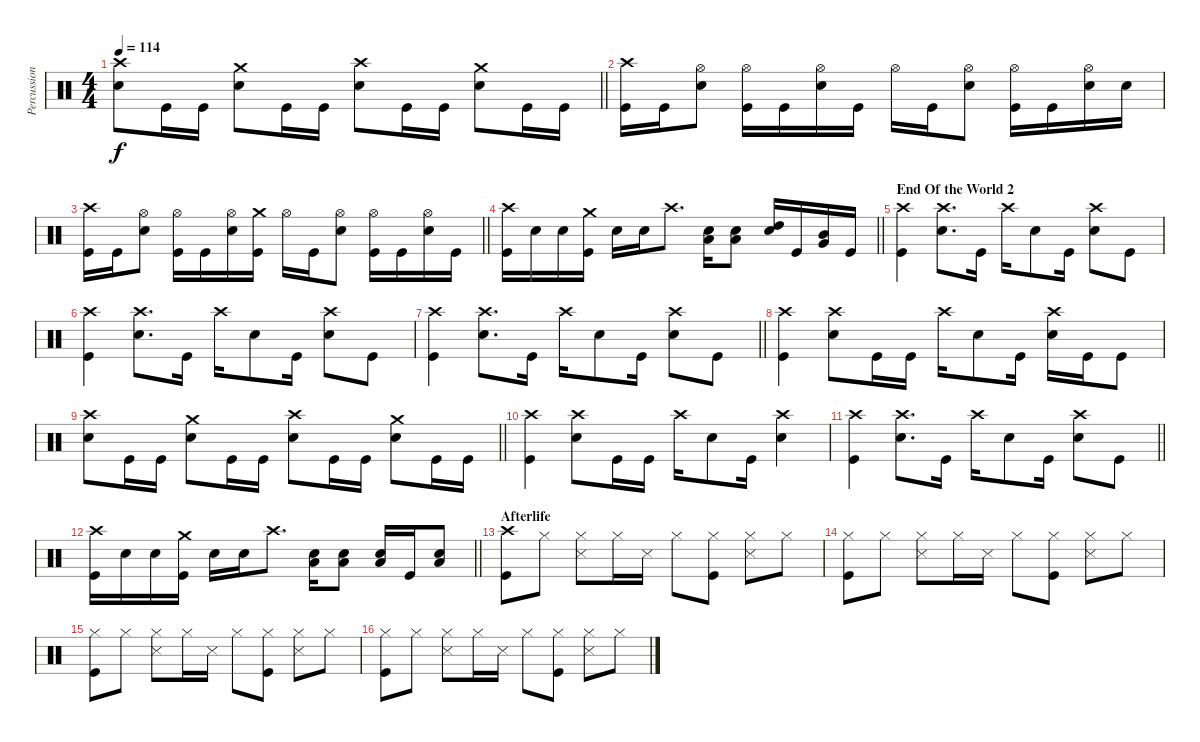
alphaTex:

\track ("Percussion" "Percussion") {instrument percussion}
\staff {score}
\articulation defaults
\ts (4 4)
\tempo 114
\clef neutral
\barLineRight lightlight
\ks c
("Crash high (hit)" "Electric Snare (hit)").8{dy f} "Kick (hit)".16 "Kick (hit)".16 ("Crash medium (hit)" "Electric Snare (hit)").8 "Kick (hit)".16 "Kick (hit)".16 ("Crash high (hit)" "Electric Snare (hit)").8 "Kick (hit)".16 "Kick (hit)".16 ("Crash medium (hit)" "Electric Snare (hit)").8 "Kick (hit)".16 "Kick (hit)".16 |
("Crash high (hit)" "Kick (hit)").16 "Kick (hit)".16 ("Hi-Hat (open)" "Electric Snare (hit)").8 ("Hi-Hat (open)" "Kick (hit)").16 "Kick (hit)".16 ("Hi-Hat (open)" "Electric Snare (hit)").16 "Kick (hit)".16 "Hi-Hat (open)".16 "Kick (hit)".16 ("Hi-Hat (open)" "Electric Snare (hit)").8 ("Hi-Hat (open)" "Kick (hit)").16 "Kick (hit)".16 ("Hi-Hat (open)" "Electric Snare (hit)").16 "Electric Snare (hit)".16 |
\barLineRight lightlight
("Crash high (hit)" "Kick (hit)").16 "Kick (hit)".16 ("Hi-Hat (open)" "Electric Snare (hit)").8 ("Hi-Hat (open)" "Kick (hit)").16 "Kick (hit)".16 ("Hi-Hat (open)" "Electric Snare (hit)").16 ("Crash medium (hit)" "Kick (hit)").16 "Hi-Hat (open)".16 "Kick (hit)".16 ("Hi-Hat (open)" "Electric Snare (hit)").8 ("Hi-Hat (open)" "Kick (hit)").16 "Kick (hit)".16 ("Hi-Hat (open)" "Electric Snare (hit)").16 "Kick (hit)".16 |
\barLineRight lightlight
("Crash high (hit)" "Kick (hit)").16 "Electric Snare (hit)".16 "Electric Snare (hit)".16 ("Crash medium (hit)" "Kick (hit)").16 "Electric Snare (hit)".16 "Electric Snare (hit)".16 "Crash high (hit)".8{d} ("Electric Snare (hit)" "Low Tom (hit)").16 ("Electric Snare (hit)" "Low Tom (hit)").8 ("Electric Snare (hit)" "High Tom (hit)").16 "Kick (hit)".16 ("Mid Tom (hit)" "Very Low Tom (hit)").16 "Kick (hit)".16 |
\section ("" "End Of the World 2")
("Crash high (hit)" "Kick (hit)").4 ("Crash high (hit)" "Electric Snare (hit)").8{d} "Kick (hit)".16 "Crash high (hit)".16 "Electric Snare (hit)".8 "Kick (hit)".16 ("Crash high (hit)" "Electric Snare (hit)").8 "Kick (hit)".8 |
("Crash high (hit)" "Kick (hit)").4 ("Crash high (hit)" "Electric Snare (hit)").8{d} "Kick (hit)".16 "Crash high (hit)".16 "Electric Snare (hit)".8 "Kick (hit)".16 ("Crash high (hit)" "Electric Snare (hit)").8 "Kick (hit)".8 |
\barLineRight lightlight
("Crash high (hit)" "Kick (hit)").4 ("Crash high (hit)" "Electric Snare (hit)").8{d} "Kick (hit)".16 "Crash high (hit)".16 "Electric Snare (hit)".8 "Kick (hit)".16 ("Crash high (hit)" "Electric Snare (hit)").8 "Kick (hit)".8 |
("Crash high (hit)" "Kick (hit)").4 ("Crash high (hit)" "Electric Snare (hit)").8 "Kick (hit)".16 "Kick (hit)".16 "Crash high (hit)".16 "Electric Snare (hit)".8 "Kick (hit)".16 ("Crash high (hit)" "Electric Snare (hit)").16 "Kick (hit)".16 "Kick (hit)".8 |
\barLineRight lightlight
("Crash high (hit)" "Electric Snare (hit)").8 "Kick (hit)".16 "Kick (hit)".16 ("Crash medium (hit)" "Electric Snare (hit)").8 "Kick (hit)".16 "Kick (hit)".16 ("Crash high (hit)" "Electric Snare (hit)").8 "Kick (hit)".16 "Kick (hit)".16 ("Crash medium (hit)" "Electric Snare (hit)").8 "Kick (hit)".16 "Kick (hit)".16 |
("Crash high (hit)" "Kick (hit)").4 ("Crash high (hit)" "Electric Snare (hit)").8 "Kick (hit)".16 "Kick (hit)".16 "Crash high (hit)".16 "Electric Snare (hit)".8 "Kick (hit)".16 ("Crash high (hit)" "Electric Snare (hit)").4 |
\barLineRight lightlight
("Crash high (hit)" "Kick (hit)").4 ("Crash high (hit)" "Electric Snare (hit)").8{d} "Kick (hit)".16 "Crash high (hit)".16 "Electric Snare (hit)".8 "Kick (hit)".16 ("Crash high (hit)" "Electric Snare (hit)").8 "Kick (hit)".8 |
\barLineRight lightlight
("Crash high (hit)" "Kick (hit)").16 "Electric Snare (hit)".16 "Electric Snare (hit)".16 ("Crash medium (hit)" "Kick (hit)").16 "Electric Snare (hit)".16 "Electric Snare (hit)".16 "Crash high (hit)".8{d} ("Electric Snare (hit)" "Low Tom (hit)").16 ("Electric Snare (hit)" "Low Tom (hit)").8 ("Electric Snare (hit)" "Low Tom (hit)").16 "Kick (hit)".16 ("Electric Snare (hit)" "Low Tom (hit)").8 |
\section ("" "Afterlife")
("Crash high (hit)" "Kick (hit)").8 "Hi-Hat (closed)".8 ("Hi-Hat (closed)" "Snare (side stick) 3").8 "Hi-Hat (closed)".16 "Snare (side stick) 3".16 "Hi-Hat (closed)".8 ("Hi-Hat (closed)" "Kick (hit)").8 ("Hi-Hat (closed)" "Snare (side stick) 3").8 "Hi-Hat (closed)".8 |
("Hi-Hat (closed)" "Kick (hit)").8 "Hi-Hat (closed)".8 ("Hi-Hat (closed)" "Snare (side stick) 3").8 "Hi-Hat (closed)".16 "Snare (side stick) 3".16 "Hi-Hat (closed)".8 ("Hi-Hat (closed)" "Kick (hit)").8 ("Hi-Hat (closed)" "Snare (side stick) 3").8 "Hi-Hat (closed)".8 |
("Hi-Hat (closed)" "Kick (hit)").8 "Hi-Hat (closed)".8 ("Hi-Hat (closed)" "Snare (side stick) 3").8 "Hi-Hat (closed)".16 "Snare (side stick) 3".16 "Hi-Hat (closed)".8 ("Hi-Hat (closed)" "Kick (hit)").8 ("Hi-Hat (closed)" "Snare (side stick) 3").8 "Hi-Hat (closed)".8 |
("Hi-Hat (closed)" "Kick (hit)").8 "Hi-Hat (closed)".8 ("Hi-Hat (closed)" "Snare (side stick) 3").8 "Hi-Hat (closed)".16 "Snare (side stick) 3".16 "Hi-Hat (closed)".8 ("Hi-Hat (closed)" "Kick (hit)").8 ("Hi-Hat (closed)" "Snare (side stick) 3").8 "Hi-Hat (closed)".8
